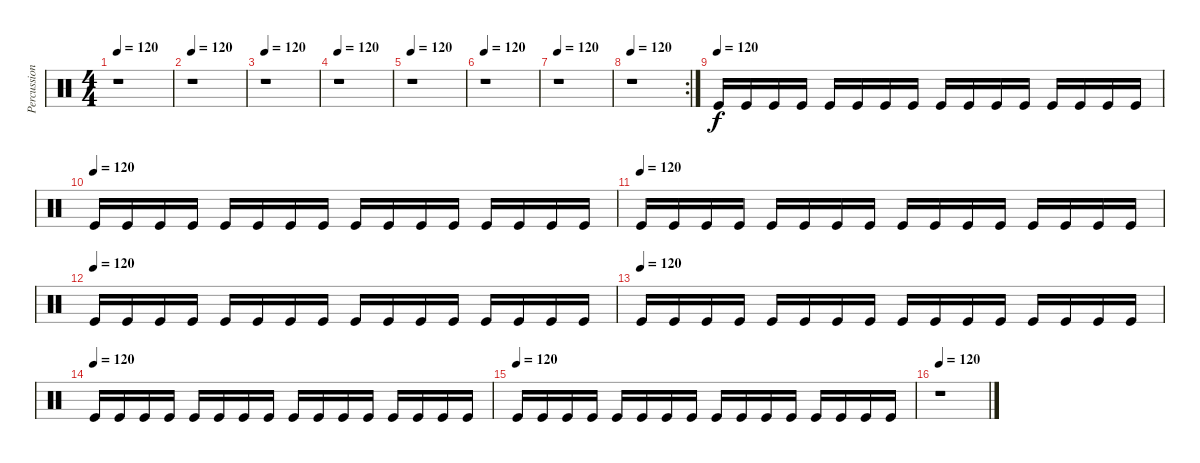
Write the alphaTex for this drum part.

\track ("Percussion" "Percussion") {instrument percussion}
\staff {score}
\articulation defaults
\ts (4 4)
\tempo 120
\clef neutral
\ks c
r.1{dy f} |
\tempo 120
r.1 |
\tempo 120
r.1 |
\tempo 120
r.1 |
\tempo 120
r.1 |
\tempo 120
r.1 |
\tempo 120
r.1 |
\rc 2
\tempo 120
r.1 |
\tempo (120)
"Kick (hit)".16 "Kick (hit)".16 "Kick (hit)".16 "Kick (hit)".16 "Kick (hit)".16 "Kick (hit)".16 "Kick (hit)".16 "Kick (hit)".16 "Kick (hit)".16 "Kick (hit)".16 "Kick (hit)".16 "Kick (hit)".16 "Kick (hit)".16 "Kick (hit)".16 "Kick (hit)".16 "Kick (hit)".16 |
\tempo (120)
"Kick (hit)".16 "Kick (hit)".16 "Kick (hit)".16 "Kick (hit)".16 "Kick (hit)".16 "Kick (hit)".16 "Kick (hit)".16 "Kick (hit)".16 "Kick (hit)".16 "Kick (hit)".16 "Kick (hit)".16 "Kick (hit)".16 "Kick (hit)".16 "Kick (hit)".16 "Kick (hit)".16 "Kick (hit)".16 |
\tempo (120)
"Kick (hit)".16 "Kick (hit)".16 "Kick (hit)".16 "Kick (hit)".16 "Kick (hit)".16 "Kick (hit)".16 "Kick (hit)".16 "Kick (hit)".16 "Kick (hit)".16 "Kick (hit)".16 "Kick (hit)".16 "Kick (hit)".16 "Kick (hit)".16 "Kick (hit)".16 "Kick (hit)".16 "Kick (hit)".16 |
\tempo (120)
"Kick (hit)".16 "Kick (hit)".16 "Kick (hit)".16 "Kick (hit)".16 "Kick (hit)".16 "Kick (hit)".16 "Kick (hit)".16 "Kick (hit)".16 "Kick (hit)".16 "Kick (hit)".16 "Kick (hit)".16 "Kick (hit)".16 "Kick (hit)".16 "Kick (hit)".16 "Kick (hit)".16 "Kick (hit)".16 |
\tempo (120)
"Kick (hit)".16 "Kick (hit)".16 "Kick (hit)".16 "Kick (hit)".16 "Kick (hit)".16 "Kick (hit)".16 "Kick (hit)".16 "Kick (hit)".16 "Kick (hit)".16 "Kick (hit)".16 "Kick (hit)".16 "Kick (hit)".16 "Kick (hit)".16 "Kick (hit)".16 "Kick (hit)".16 "Kick (hit)".16 |
\tempo (120)
"Kick (hit)".16 "Kick (hit)".16 "Kick (hit)".16 "Kick (hit)".16 "Kick (hit)".16 "Kick (hit)".16 "Kick (hit)".16 "Kick (hit)".16 "Kick (hit)".16 "Kick (hit)".16 "Kick (hit)".16 "Kick (hit)".16 "Kick (hit)".16 "Kick (hit)".16 "Kick (hit)".16 "Kick (hit)".16 |
\tempo (120)
"Kick (hit)".16 "Kick (hit)".16 "Kick (hit)".16 "Kick (hit)".16 "Kick (hit)".16 "Kick (hit)".16 "Kick (hit)".16 "Kick (hit)".16 "Kick (hit)".16 "Kick (hit)".16 "Kick (hit)".16 "Kick (hit)".16 "Kick (hit)".16 "Kick (hit)".16 "Kick (hit)".16 "Kick (hit)".16 |
\tempo 120
r.1
